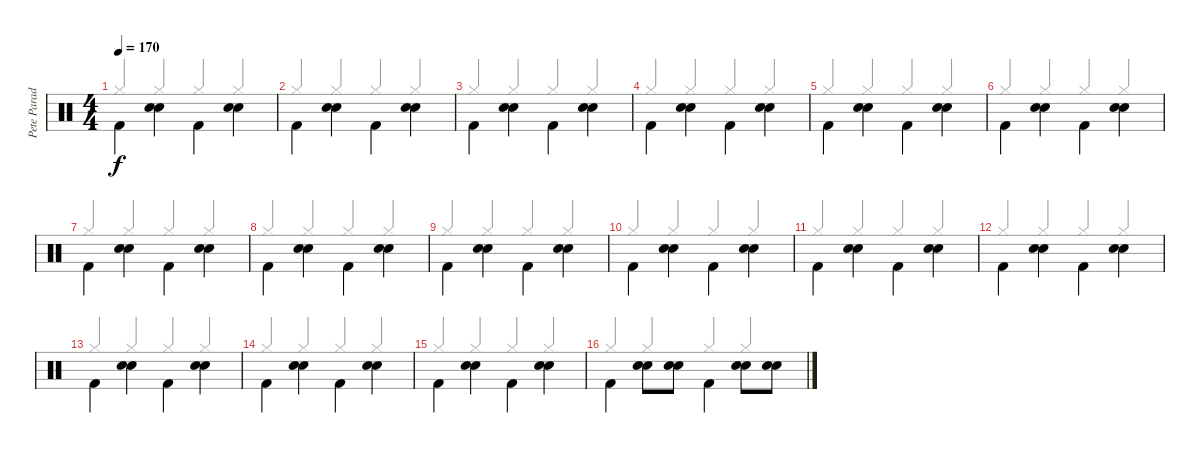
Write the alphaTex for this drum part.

\track ("Pete Parada" "Pete Parad") {instrument percussion}
\staff {score}
\articulation defaults
\voice
\ts (4 4)
\tempo 170
\clef neutral
\ks c "Kick (hit) 2".4{dy f beam Down}
("Electric Snare (hit)" "Electric Snare (hit)").4{beam Down} "Kick (hit) 2".4{beam Down} ("Electric Snare (hit)" "Electric Snare (hit)").4{beam Down} |
"Kick (hit) 2".4{beam Down} ("Electric Snare (hit)" "Electric Snare (hit)").4{beam Down} "Kick (hit) 2".4{beam Down} ("Electric Snare (hit)" "Electric Snare (hit)").4{beam Down} |
"Kick (hit) 2".4{beam Down} ("Electric Snare (hit)" "Electric Snare (hit)").4{beam Down} "Kick (hit) 2".4{beam Down} ("Electric Snare (hit)" "Electric Snare (hit)").4{beam Down} |
"Kick (hit) 2".4{beam Down} ("Electric Snare (hit)" "Electric Snare (hit)").4{beam Down} "Kick (hit) 2".4{beam Down} ("Electric Snare (hit)" "Electric Snare (hit)").4{beam Down} |
"Kick (hit) 2".4{beam Down} ("Electric Snare (hit)" "Electric Snare (hit)").4{beam Down} "Kick (hit) 2".4{beam Down} ("Electric Snare (hit)" "Electric Snare (hit)").4{beam Down} |
"Kick (hit) 2".4{beam Down} ("Electric Snare (hit)" "Electric Snare (hit)").4{beam Down} "Kick (hit) 2".4{beam Down} ("Electric Snare (hit)" "Electric Snare (hit)").4{beam Down} |
"Kick (hit) 2".4{beam Down} ("Electric Snare (hit)" "Electric Snare (hit)").4{beam Down} "Kick (hit) 2".4{beam Down} ("Electric Snare (hit)" "Electric Snare (hit)").4{beam Down} |
"Kick (hit) 2".4{beam Down} ("Electric Snare (hit)" "Electric Snare (hit)").4{beam Down} "Kick (hit) 2".4{beam Down} ("Electric Snare (hit)" "Electric Snare (hit)").4{beam Down} |
"Kick (hit) 2".4{beam Down} ("Electric Snare (hit)" "Electric Snare (hit)").4{beam Down} "Kick (hit) 2".4{beam Down} ("Electric Snare (hit)" "Electric Snare (hit)").4{beam Down} |
"Kick (hit) 2".4{beam Down} ("Electric Snare (hit)" "Electric Snare (hit)").4{beam Down} "Kick (hit) 2".4{beam Down} ("Electric Snare (hit)" "Electric Snare (hit)").4{beam Down} |
"Kick (hit) 2".4{beam Down} ("Electric Snare (hit)" "Electric Snare (hit)").4{beam Down} "Kick (hit) 2".4{beam Down} ("Electric Snare (hit)" "Electric Snare (hit)").4{beam Down} |
"Kick (hit) 2".4{beam Down} ("Electric Snare (hit)" "Electric Snare (hit)").4{beam Down} "Kick (hit) 2".4{beam Down} ("Electric Snare (hit)" "Electric Snare (hit)").4{beam Down} |
"Kick (hit) 2".4{beam Down} ("Electric Snare (hit)" "Electric Snare (hit)").4{beam Down} "Kick (hit) 2".4{beam Down} ("Electric Snare (hit)" "Electric Snare (hit)").4{beam Down} |
"Kick (hit) 2".4{beam Down} ("Electric Snare (hit)" "Electric Snare (hit)").4{beam Down} "Kick (hit) 2".4{beam Down} ("Electric Snare (hit)" "Electric Snare (hit)").4{beam Down} |
"Kick (hit) 2".4{beam Down} ("Electric Snare (hit)" "Electric Snare (hit)").4{beam Down} "Kick (hit) 2".4{beam Down} ("Electric Snare (hit)" "Electric Snare (hit)").4{beam Down} |
"Kick (hit) 2".4{beam Down} ("Electric Snare (hit)" "Electric Snare (hit)").8{beam Down} ("Electric Snare (hit)" "Electric Snare (hit)").8{beam Down} "Kick (hit) 2".4{beam Down} ("Electric Snare (hit)" "Electric Snare (hit)").8{beam Down} ("Electric Snare (hit)" "Electric Snare (hit)").8{beam Down}
\voice
\clef neutral
\ottava regular
\simile none
\ks c "Hi-Hat (closed)".4{dy f beam Up} "Hi-Hat (closed)".4{beam Up} "Hi-Hat (closed)".4{beam Up} "Hi-Hat (closed)".4{beam Up}
|
"Hi-Hat (closed)".4{beam Up} "Hi-Hat (closed)".4{beam Up} "Hi-Hat (closed)".4{beam Up} "Hi-Hat (closed)".4{beam Up} |
"Hi-Hat (closed)".4{beam Up} "Hi-Hat (closed)".4{beam Up} "Hi-Hat (closed)".4{beam Up} "Hi-Hat (closed)".4{beam Up} |
"Hi-Hat (closed)".4{beam Up} "Hi-Hat (closed)".4{beam Up} "Hi-Hat (closed)".4{beam Up} "Hi-Hat (closed)".4{beam Up} |
"Hi-Hat (closed)".4{beam Up} "Hi-Hat (closed)".4{beam Up} "Hi-Hat (closed)".4{beam Up} "Hi-Hat (closed)".4{beam Up} |
"Hi-Hat (closed)".4{beam Up} "Hi-Hat (closed)".4{beam Up} "Hi-Hat (closed)".4{beam Up} "Hi-Hat (closed)".4{beam Up} |
"Hi-Hat (closed)".4{beam Up} "Hi-Hat (closed)".4{beam Up} "Hi-Hat (closed)".4{beam Up} "Hi-Hat (closed)".4{beam Up} |
"Hi-Hat (closed)".4{beam Up} "Hi-Hat (closed)".4{beam Up} "Hi-Hat (closed)".4{beam Up} "Hi-Hat (closed)".4{beam Up} |
"Hi-Hat (closed)".4{beam Up} "Hi-Hat (closed)".4{beam Up} "Hi-Hat (closed)".4{beam Up} "Hi-Hat (closed)".4{beam Up} |
"Hi-Hat (closed)".4{beam Up} "Hi-Hat (closed)".4{beam Up} "Hi-Hat (closed)".4{beam Up} "Hi-Hat (closed)".4{beam Up} |
"Hi-Hat (closed)".4{beam Up} "Hi-Hat (closed)".4{beam Up} "Hi-Hat (closed)".4{beam Up} "Hi-Hat (closed)".4{beam Up} |
"Hi-Hat (closed)".4{beam Up} "Hi-Hat (closed)".4{beam Up} "Hi-Hat (closed)".4{beam Up} "Hi-Hat (closed)".4{beam Up} |
"Hi-Hat (closed)".4{beam Up} "Hi-Hat (closed)".4{beam Up} "Hi-Hat (closed)".4{beam Up} "Hi-Hat (closed)".4{beam Up} |
"Hi-Hat (closed)".4{beam Up} "Hi-Hat (closed)".4{beam Up} "Hi-Hat (closed)".4{beam Up} "Hi-Hat (closed)".4{beam Up} |
"Hi-Hat (closed)".4{beam Up} "Hi-Hat (closed)".4{beam Up} "Hi-Hat (closed)".4{beam Up} "Hi-Hat (closed)".4{beam Up} |
"Hi-Hat (closed)".4{beam Up} "Hi-Hat (closed)".4{beam Up} "Hi-Hat (closed)".4{beam Up} "Hi-Hat (closed)".4{beam Up}
